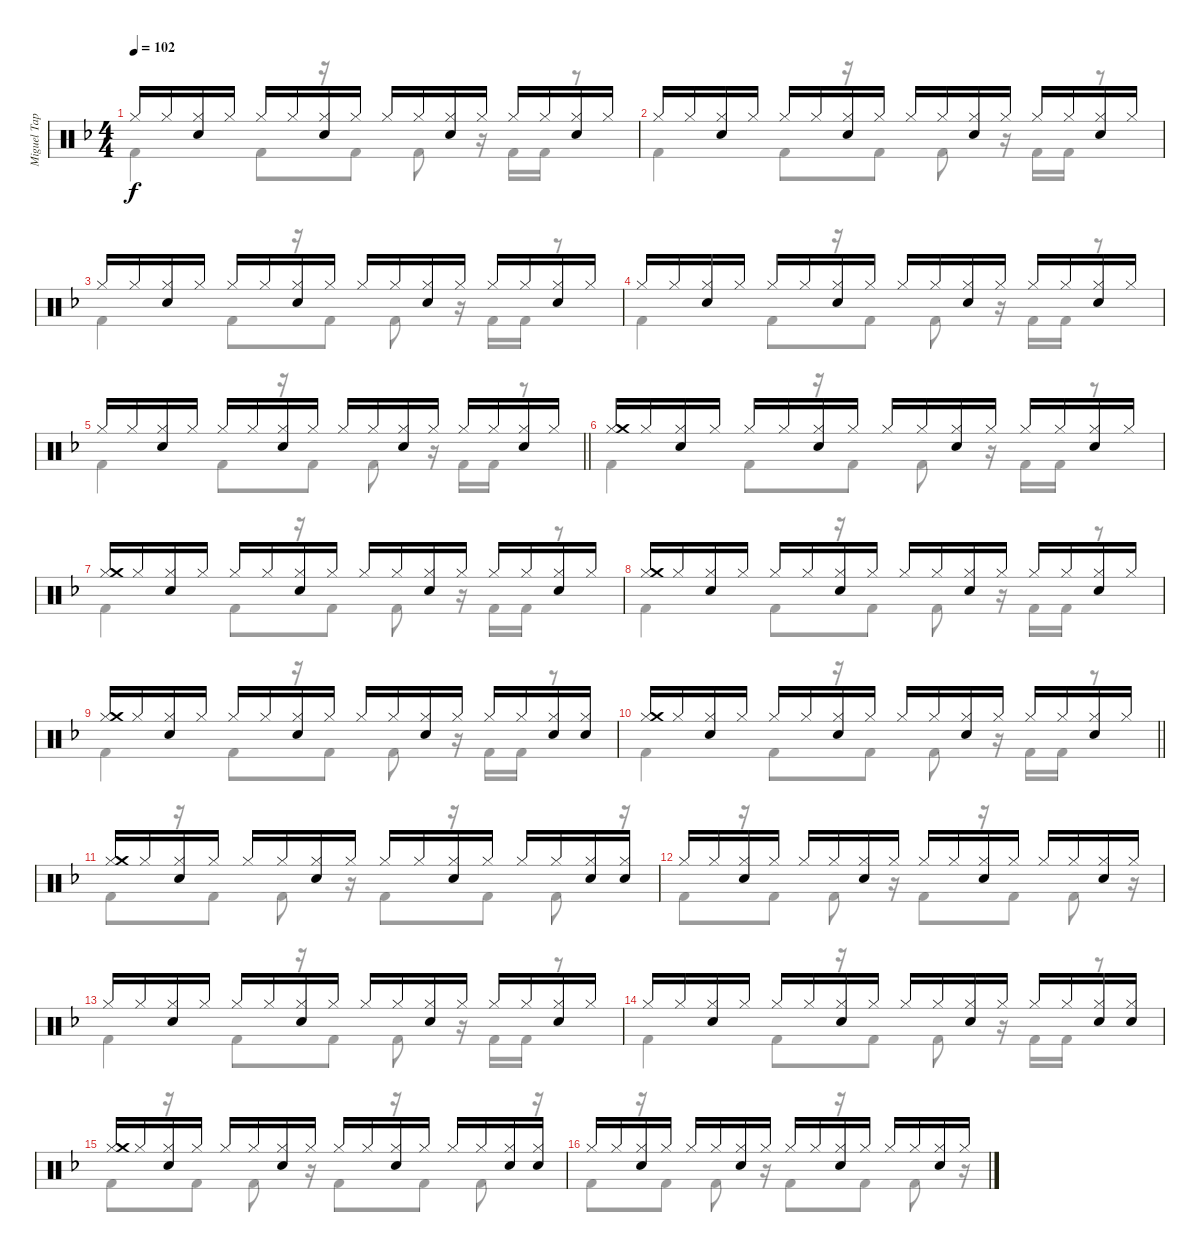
\track ("Miguel Tapia (Batería)" "Miguel Tap") {instrument percussion}
\staff {score}
\articulation defaults
\voice
\ts (4 4)
\tempo 102
\clef neutral
\ks f "Hi-Hat (closed)".16{dy f} "Hi-Hat (closed)".16
("Hi-Hat (closed)" "Snare (hit) 2").16 "Hi-Hat (closed)".16 "Hi-Hat (closed)".16 "Hi-Hat (closed)".16 ("Hi-Hat (closed)" "Snare (hit) 2").16 "Hi-Hat (closed)".16 "Hi-Hat (closed)".16 "Hi-Hat (closed)".16 ("Hi-Hat (closed)" "Snare (hit) 2").16 "Hi-Hat (closed)".16 "Hi-Hat (closed)".16 "Hi-Hat (closed)".16 ("Hi-Hat (closed)" "Snare (hit) 2").16 "Hi-Hat (closed)".16 |
"Hi-Hat (closed)".16 "Hi-Hat (closed)".16 ("Hi-Hat (closed)" "Snare (hit) 2").16 "Hi-Hat (closed)".16 "Hi-Hat (closed)".16 "Hi-Hat (closed)".16 ("Hi-Hat (closed)" "Snare (hit) 2").16 "Hi-Hat (closed)".16 "Hi-Hat (closed)".16 "Hi-Hat (closed)".16 ("Hi-Hat (closed)" "Snare (hit) 2").16 "Hi-Hat (closed)".16 "Hi-Hat (closed)".16 "Hi-Hat (closed)".16 ("Hi-Hat (closed)" "Snare (hit) 2").16 "Hi-Hat (closed)".16 |
"Hi-Hat (closed)".16 "Hi-Hat (closed)".16 ("Hi-Hat (closed)" "Snare (hit) 2").16 "Hi-Hat (closed)".16 "Hi-Hat (closed)".16 "Hi-Hat (closed)".16 ("Hi-Hat (closed)" "Snare (hit) 2").16 "Hi-Hat (closed)".16 "Hi-Hat (closed)".16 "Hi-Hat (closed)".16 ("Hi-Hat (closed)" "Snare (hit) 2").16 "Hi-Hat (closed)".16 "Hi-Hat (closed)".16 "Hi-Hat (closed)".16 ("Hi-Hat (closed)" "Snare (hit) 2").16 "Hi-Hat (closed)".16 |
"Hi-Hat (closed)".16 "Hi-Hat (closed)".16 ("Hi-Hat (closed)" "Snare (hit) 2").16 "Hi-Hat (closed)".16 "Hi-Hat (closed)".16 "Hi-Hat (closed)".16 ("Hi-Hat (closed)" "Snare (hit) 2").16 "Hi-Hat (closed)".16 "Hi-Hat (closed)".16 "Hi-Hat (closed)".16 ("Hi-Hat (closed)" "Snare (hit) 2").16 "Hi-Hat (closed)".16 "Hi-Hat (closed)".16 "Hi-Hat (closed)".16 ("Hi-Hat (closed)" "Snare (hit) 2").16 "Hi-Hat (closed)".16 |
\barLineRight lightlight "Hi-Hat (closed)".16 "Hi-Hat (closed)".16
("Hi-Hat (closed)" "Snare (hit) 2").16 "Hi-Hat (closed)".16 "Hi-Hat (closed)".16 "Hi-Hat (closed)".16 ("Hi-Hat (closed)" "Snare (hit) 2").16 "Hi-Hat (closed)".16 "Hi-Hat (closed)".16 "Hi-Hat (closed)".16 ("Hi-Hat (closed)" "Snare (hit) 2").16 "Hi-Hat (closed)".16 "Hi-Hat (closed)".16 "Hi-Hat (closed)".16 ("Hi-Hat (closed)" "Snare (hit) 2").16 "Hi-Hat (closed)".16 |
("Hi-Hat (closed)" "Crash medium (hit)").16 "Hi-Hat (closed)".16 ("Hi-Hat (closed)" "Snare (hit) 2").16 "Hi-Hat (closed)".16 "Hi-Hat (closed)".16 "Hi-Hat (closed)".16 ("Hi-Hat (closed)" "Snare (hit) 2").16 "Hi-Hat (closed)".16 "Hi-Hat (closed)".16 "Hi-Hat (closed)".16 ("Hi-Hat (closed)" "Snare (hit) 2").16 "Hi-Hat (closed)".16 "Hi-Hat (closed)".16 "Hi-Hat (closed)".16 ("Hi-Hat (closed)" "Snare (hit) 2").16 "Hi-Hat (closed)".16 |
("Hi-Hat (closed)" "Crash medium (hit)").16 "Hi-Hat (closed)".16 ("Hi-Hat (closed)" "Snare (hit) 2").16 "Hi-Hat (closed)".16 "Hi-Hat (closed)".16 "Hi-Hat (closed)".16 ("Hi-Hat (closed)" "Snare (hit) 2").16 "Hi-Hat (closed)".16 "Hi-Hat (closed)".16 "Hi-Hat (closed)".16 ("Hi-Hat (closed)" "Snare (hit) 2").16 "Hi-Hat (closed)".16 "Hi-Hat (closed)".16 "Hi-Hat (closed)".16 ("Hi-Hat (closed)" "Snare (hit) 2").16 "Hi-Hat (closed)".16 |
("Hi-Hat (closed)" "Crash medium (hit)").16 "Hi-Hat (closed)".16 ("Hi-Hat (closed)" "Snare (hit) 2").16 "Hi-Hat (closed)".16 "Hi-Hat (closed)".16 "Hi-Hat (closed)".16 ("Hi-Hat (closed)" "Snare (hit) 2").16 "Hi-Hat (closed)".16 "Hi-Hat (closed)".16 "Hi-Hat (closed)".16 ("Hi-Hat (closed)" "Snare (hit) 2").16 "Hi-Hat (closed)".16 "Hi-Hat (closed)".16 "Hi-Hat (closed)".16 ("Hi-Hat (closed)" "Snare (hit) 2").16 "Hi-Hat (closed)".16 |
("Hi-Hat (closed)" "Crash medium (hit)").16 "Hi-Hat (closed)".16 ("Hi-Hat (closed)" "Snare (hit) 2").16 "Hi-Hat (closed)".16 "Hi-Hat (closed)".16 "Hi-Hat (closed)".16 ("Hi-Hat (closed)" "Snare (hit) 2").16 "Hi-Hat (closed)".16 "Hi-Hat (closed)".16 "Hi-Hat (closed)".16 ("Hi-Hat (closed)" "Snare (hit) 2").16 "Hi-Hat (closed)".16 "Hi-Hat (closed)".16 "Hi-Hat (closed)".16 ("Hi-Hat (closed)" "Snare (hit) 2").16 ("Hi-Hat (closed)" "Snare (hit) 2").16 |
\barLineRight lightlight
("Hi-Hat (closed)" "Crash medium (hit)").16 "Hi-Hat (closed)".16 ("Hi-Hat (closed)" "Snare (hit) 2").16 "Hi-Hat (closed)".16 "Hi-Hat (closed)".16 "Hi-Hat (closed)".16 ("Hi-Hat (closed)" "Snare (hit) 2").16 "Hi-Hat (closed)".16 "Hi-Hat (closed)".16 "Hi-Hat (closed)".16 ("Hi-Hat (closed)" "Snare (hit) 2").16 "Hi-Hat (closed)".16 "Hi-Hat (closed)".16 "Hi-Hat (closed)".16 ("Hi-Hat (closed)" "Snare (hit) 2").16 "Hi-Hat (closed)".16 |
("Hi-Hat (closed)" "Crash medium (hit)").16 "Hi-Hat (closed)".16 ("Hi-Hat (closed)" "Snare (hit) 2").16 "Hi-Hat (closed)".16 "Hi-Hat (closed)".16 "Hi-Hat (closed)".16 ("Hi-Hat (closed)" "Snare (hit) 2").16 "Hi-Hat (closed)".16 "Hi-Hat (closed)".16 "Hi-Hat (closed)".16 ("Hi-Hat (closed)" "Snare (hit) 2").16 "Hi-Hat (closed)".16 "Hi-Hat (closed)".16 "Hi-Hat (closed)".16 ("Hi-Hat (closed)" "Snare (hit) 2").16 ("Hi-Hat (closed)" "Snare (hit) 2").16 |
"Hi-Hat (closed)".16 "Hi-Hat (closed)".16 ("Hi-Hat (closed)" "Snare (hit) 2").16 "Hi-Hat (closed)".16 "Hi-Hat (closed)".16 "Hi-Hat (closed)".16 ("Hi-Hat (closed)" "Snare (hit) 2").16 "Hi-Hat (closed)".16 "Hi-Hat (closed)".16 "Hi-Hat (closed)".16 ("Hi-Hat (closed)" "Snare (hit) 2").16 "Hi-Hat (closed)".16 "Hi-Hat (closed)".16 "Hi-Hat (closed)".16 ("Hi-Hat (closed)" "Snare (hit) 2").16 "Hi-Hat (closed)".16 |
"Hi-Hat (closed)".16 "Hi-Hat (closed)".16 ("Hi-Hat (closed)" "Snare (hit) 2").16 "Hi-Hat (closed)".16 "Hi-Hat (closed)".16 "Hi-Hat (closed)".16 ("Hi-Hat (closed)" "Snare (hit) 2").16 "Hi-Hat (closed)".16 "Hi-Hat (closed)".16 "Hi-Hat (closed)".16 ("Hi-Hat (closed)" "Snare (hit) 2").16 "Hi-Hat (closed)".16 "Hi-Hat (closed)".16 "Hi-Hat (closed)".16 ("Hi-Hat (closed)" "Snare (hit) 2").16 "Hi-Hat (closed)".16 |
"Hi-Hat (closed)".16 "Hi-Hat (closed)".16 ("Hi-Hat (closed)" "Snare (hit) 2").16 "Hi-Hat (closed)".16 "Hi-Hat (closed)".16 "Hi-Hat (closed)".16 ("Hi-Hat (closed)" "Snare (hit) 2").16 "Hi-Hat (closed)".16 "Hi-Hat (closed)".16 "Hi-Hat (closed)".16 ("Hi-Hat (closed)" "Snare (hit) 2").16 "Hi-Hat (closed)".16 "Hi-Hat (closed)".16 "Hi-Hat (closed)".16 ("Hi-Hat (closed)" "Snare (hit) 2").16 ("Hi-Hat (closed)" "Snare (hit) 2").16 |
("Hi-Hat (closed)" "Crash medium (hit)").16 "Hi-Hat (closed)".16 ("Hi-Hat (closed)" "Snare (hit) 2").16 "Hi-Hat (closed)".16 "Hi-Hat (closed)".16 "Hi-Hat (closed)".16 ("Hi-Hat (closed)" "Snare (hit) 2").16 "Hi-Hat (closed)".16 "Hi-Hat (closed)".16 "Hi-Hat (closed)".16 ("Hi-Hat (closed)" "Snare (hit) 2").16 "Hi-Hat (closed)".16 "Hi-Hat (closed)".16 "Hi-Hat (closed)".16 ("Hi-Hat (closed)" "Snare (hit) 2").16 ("Hi-Hat (closed)" "Snare (hit) 2").16 |
"Hi-Hat (closed)".16 "Hi-Hat (closed)".16 ("Hi-Hat (closed)" "Snare (hit) 2").16 "Hi-Hat (closed)".16 "Hi-Hat (closed)".16 "Hi-Hat (closed)".16 ("Hi-Hat (closed)" "Snare (hit) 2").16 "Hi-Hat (closed)".16 "Hi-Hat (closed)".16 "Hi-Hat (closed)".16 ("Hi-Hat (closed)" "Snare (hit) 2").16 "Hi-Hat (closed)".16 "Hi-Hat (closed)".16 "Hi-Hat (closed)".16 ("Hi-Hat (closed)" "Snare (hit) 2").16 "Hi-Hat (closed)".16
\voice
\clef neutral
\ottava regular
\simile none
\ks f "Kick (hit) 2".4{dy f} "Kick (hit) 2".8
r.16 "Kick (hit) 2".8 "Kick (hit) 2".8 r.16 "Kick (hit) 2".16 "Kick (hit) 2".16 r.8 |
"Kick (hit) 2".4 "Kick (hit) 2".8 r.16 "Kick (hit) 2".8 "Kick (hit) 2".8 r.16 "Kick (hit) 2".16 "Kick (hit) 2".16 r.8 |
"Kick (hit) 2".4 "Kick (hit) 2".8 r.16 "Kick (hit) 2".8 "Kick (hit) 2".8 r.16 "Kick (hit) 2".16 "Kick (hit) 2".16 r.8 |
"Kick (hit) 2".4 "Kick (hit) 2".8 r.16 "Kick (hit) 2".8 "Kick (hit) 2".8 r.16 "Kick (hit) 2".16 "Kick (hit) 2".16 r.8 |
\barLineRight lightlight "Kick (hit) 2".4 "Kick (hit) 2".8
r.16 "Kick (hit) 2".8 "Kick (hit) 2".8 r.16 "Kick (hit) 2".16 "Kick (hit) 2".16 r.8 |
"Kick (hit) 2".4 "Kick (hit) 2".8 r.16 "Kick (hit) 2".8 "Kick (hit) 2".8 r.16 "Kick (hit) 2".16 "Kick (hit) 2".16 r.8 |
"Kick (hit) 2".4 "Kick (hit) 2".8 r.16 "Kick (hit) 2".8 "Kick (hit) 2".8 r.16 "Kick (hit) 2".16 "Kick (hit) 2".16 r.8 |
"Kick (hit) 2".4 "Kick (hit) 2".8 r.16 "Kick (hit) 2".8 "Kick (hit) 2".8 r.16 "Kick (hit) 2".16 "Kick (hit) 2".16 r.8 |
"Kick (hit) 2".4 "Kick (hit) 2".8 r.16 "Kick (hit) 2".8 "Kick (hit) 2".8 r.16 "Kick (hit) 2".16 "Kick (hit) 2".16 r.8 |
\barLineRight lightlight "Kick (hit) 2".4 "Kick (hit) 2".8
r.16 "Kick (hit) 2".8 "Kick (hit) 2".8 r.16 "Kick (hit) 2".16 "Kick (hit) 2".16 r.8 |
"Kick (hit) 2".8 r.16 "Kick (hit) 2".8 "Kick (hit) 2".8 r.16 "Kick (hit) 2".8 r.16 "Kick (hit) 2".8 "Kick (hit) 2".8 r.16 |
"Kick (hit) 2".8 r.16 "Kick (hit) 2".8 "Kick (hit) 2".8 r.16 "Kick (hit) 2".8 r.16 "Kick (hit) 2".8 "Kick (hit) 2".8 r.16 |
"Kick (hit) 2".4 "Kick (hit) 2".8 r.16 "Kick (hit) 2".8 "Kick (hit) 2".8 r.16 "Kick (hit) 2".16 "Kick (hit) 2".16 r.8 |
"Kick (hit) 2".4 "Kick (hit) 2".8 r.16 "Kick (hit) 2".8 "Kick (hit) 2".8 r.16 "Kick (hit) 2".16 "Kick (hit) 2".16 r.8 |
"Kick (hit) 2".8 r.16 "Kick (hit) 2".8 "Kick (hit) 2".8 r.16 "Kick (hit) 2".8 r.16 "Kick (hit) 2".8 "Kick (hit) 2".8 r.16 |
"Kick (hit) 2".8 r.16 "Kick (hit) 2".8 "Kick (hit) 2".8 r.16 "Kick (hit) 2".8 r.16 "Kick (hit) 2".8 "Kick (hit) 2".8 r.16
